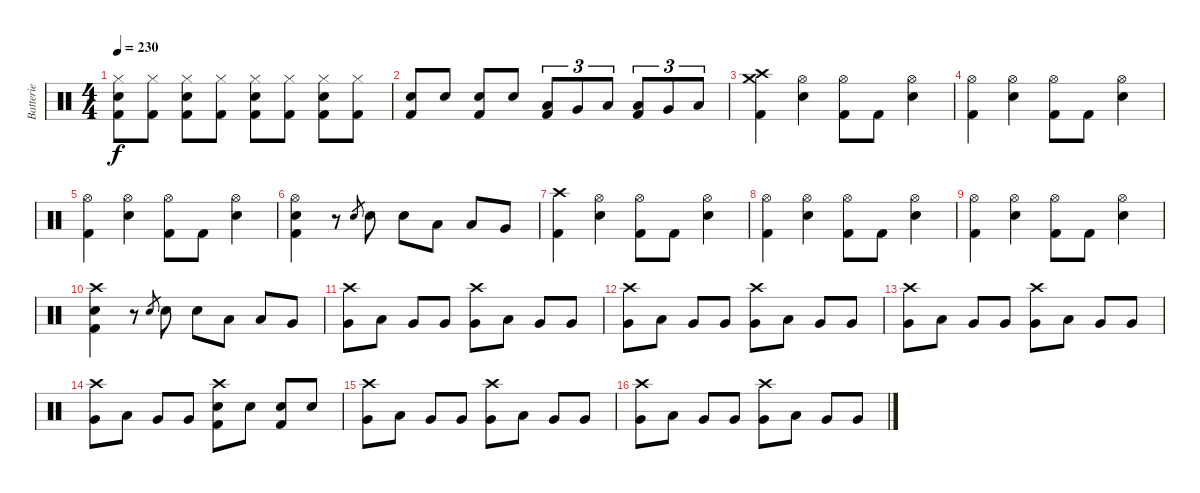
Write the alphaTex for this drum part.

\track ("Batterie" "Batterie") {instrument percussion}
\staff {score}
\articulation defaults
\ts (4 4)
\tempo 230
\clef neutral
\ks c
("Hi-Hat (closed)" "Electric Snare (hit)" "Kick (hit) 2").8{dy f} ("Hi-Hat (closed)" "Kick (hit) 2").8 ("Hi-Hat (closed)" "Electric Snare (hit)" "Kick (hit) 2").8 ("Hi-Hat (closed)" "Kick (hit) 2").8 ("Hi-Hat (closed)" "Electric Snare (hit)" "Kick (hit) 2").8 ("Hi-Hat (closed)" "Kick (hit) 2").8 ("Hi-Hat (closed)" "Electric Snare (hit)" "Kick (hit) 2").8 ("Hi-Hat (closed)" "Kick (hit) 2").8 |
("Electric Snare (hit)" "Kick (hit) 2").8 "Electric Snare (hit)".8 ("Electric Snare (hit)" "Kick (hit) 2").8 "Electric Snare (hit)".8 ("Low Tom (hit)" "Kick (hit) 2").8{tu (3 2)} "Very Low Tom (hit)".8{tu (3 2)} "Low Floor Tom (hit)".8{tu (3 2)} ("Low Tom (hit)" "Kick (hit) 2").8{tu (3 2)} "Very Low Tom (hit)".8{tu (3 2)} "Low Floor Tom (hit)".8{tu (3 2)} |
("Crash high (hit)" "Crash medium (hit)" "Kick (hit) 2").4 ("Hi-Hat (open)" "Electric Snare (hit)").4 ("Hi-Hat (open)" "Kick (hit) 2").8 "Kick (hit) 2".8 ("Hi-Hat (open)" "Electric Snare (hit)").4 |
("Hi-Hat (open)" "Kick (hit) 2").4 ("Hi-Hat (open)" "Electric Snare (hit)").4 ("Hi-Hat (open)" "Kick (hit) 2").8 "Kick (hit) 2".8 ("Hi-Hat (open)" "Electric Snare (hit)").4 |
("Hi-Hat (open)" "Kick (hit) 2").4 ("Hi-Hat (open)" "Electric Snare (hit)").4 ("Hi-Hat (open)" "Kick (hit) 2").8 "Kick (hit) 2".8 ("Hi-Hat (open)" "Electric Snare (hit)").4 |
("Hi-Hat (open)" "Electric Snare (hit)" "Kick (hit) 2").4 r.8 "Electric Snare (hit)".8{gr} "Electric Snare (hit)".8 "Electric Snare (hit)".8 "Low Tom (hit)".8 "Low Tom (hit)".8 "Very Low Tom (hit)".8 |
("Crash high (hit)" "Kick (hit) 2").4 ("Hi-Hat (open)" "Electric Snare (hit)").4 ("Hi-Hat (open)" "Kick (hit) 2").8 "Kick (hit) 2".8 ("Hi-Hat (open)" "Electric Snare (hit)").4 |
("Hi-Hat (open)" "Kick (hit) 2").4 ("Hi-Hat (open)" "Electric Snare (hit)").4 ("Hi-Hat (open)" "Kick (hit) 2").8 "Kick (hit) 2".8 ("Hi-Hat (open)" "Electric Snare (hit)").4 |
("Hi-Hat (open)" "Kick (hit) 2").4 ("Hi-Hat (open)" "Electric Snare (hit)").4 ("Hi-Hat (open)" "Kick (hit) 2").8 "Kick (hit) 2".8 ("Hi-Hat (open)" "Electric Snare (hit)").4 |
("Crash high (hit)" "Electric Snare (hit)" "Kick (hit) 2").4 r.8 "Electric Snare (hit)".8{gr} "Electric Snare (hit)".8 "Electric Snare (hit)".8 "Low Tom (hit)".8 "Low Tom (hit)".8 "Very Low Tom (hit)".8 |
("Crash high (hit)" "Very Low Tom (hit)").8 "Low Floor Tom (hit)".8 "Very Low Tom (hit)".8 "Very Low Tom (hit)".8 ("Crash high (hit)" "Very Low Tom (hit)").8 "Low Floor Tom (hit)".8 "Very Low Tom (hit)".8 "Very Low Tom (hit)".8 |
("Crash high (hit)" "Very Low Tom (hit)").8 "Low Floor Tom (hit)".8 "Very Low Tom (hit)".8 "Very Low Tom (hit)".8 ("Crash high (hit)" "Very Low Tom (hit)").8 "Low Floor Tom (hit)".8 "Very Low Tom (hit)".8 "Very Low Tom (hit)".8 |
("Crash high (hit)" "Very Low Tom (hit)").8 "Low Floor Tom (hit)".8 "Very Low Tom (hit)".8 "Very Low Tom (hit)".8 ("Crash high (hit)" "Very Low Tom (hit)").8 "Low Floor Tom (hit)".8 "Very Low Tom (hit)".8 "Very Low Tom (hit)".8 |
("Crash high (hit)" "Very Low Tom (hit)").8 "Low Floor Tom (hit)".8 "Very Low Tom (hit)".8 "Very Low Tom (hit)".8 ("Crash high (hit)" "Electric Snare (hit)" "Kick (hit) 2").8 "Electric Snare (hit)".8 ("Electric Snare (hit)" "Kick (hit) 2").8 "Electric Snare (hit)".8 |
("Crash high (hit)" "Very Low Tom (hit)").8 "Low Floor Tom (hit)".8 "Very Low Tom (hit)".8 "Very Low Tom (hit)".8 ("Crash high (hit)" "Very Low Tom (hit)").8 "Low Floor Tom (hit)".8 "Very Low Tom (hit)".8 "Very Low Tom (hit)".8 |
("Crash high (hit)" "Very Low Tom (hit)").8 "Low Floor Tom (hit)".8 "Very Low Tom (hit)".8 "Very Low Tom (hit)".8 ("Crash high (hit)" "Very Low Tom (hit)").8 "Low Floor Tom (hit)".8 "Very Low Tom (hit)".8 "Very Low Tom (hit)".8
